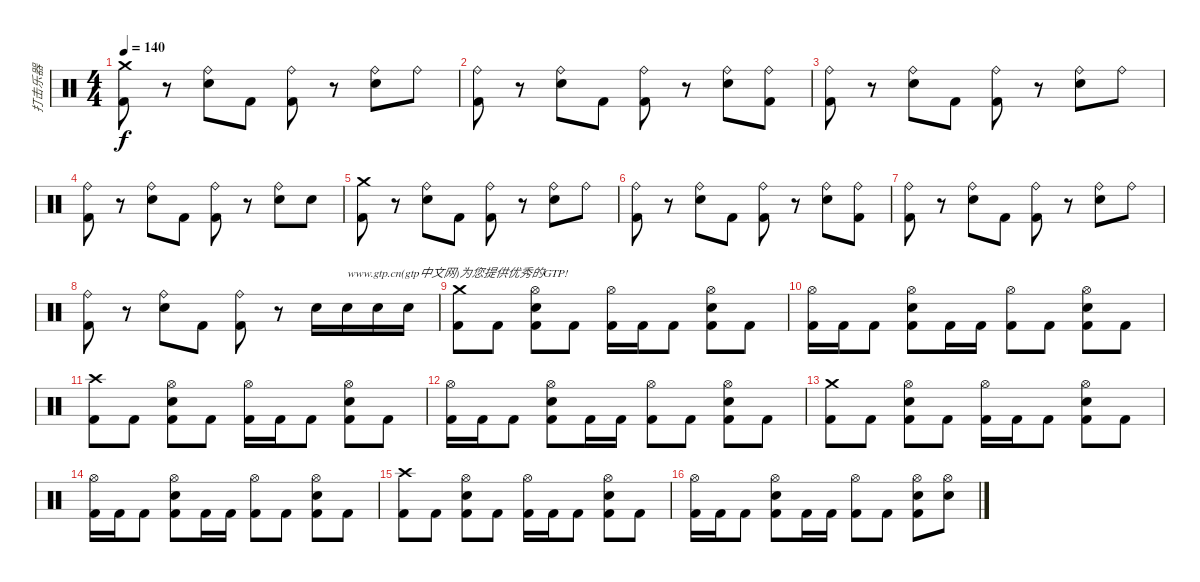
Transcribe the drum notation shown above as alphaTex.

\track ("打击乐器" "打击乐器") {instrument percussion}
\staff {score}
\articulation defaults
\ts (4 4)
\tempo 140
\clef neutral
\ks c
("Crash medium (hit)" "Kick (hit) 2").8{dy f} r.8 ("Ride (bell)" "Snare (hit) 2").8 "Kick (hit) 2".8 ("Ride (bell)" "Kick (hit) 2").8 r.8 ("Ride (bell)" "Snare (hit) 2").8 "Ride (bell)".8 |
("Ride (bell)" "Kick (hit) 2").8 r.8 ("Ride (bell)" "Snare (hit) 2").8 "Kick (hit) 2".8 ("Ride (bell)" "Kick (hit) 2").8 r.8 ("Ride (bell)" "Snare (hit) 2").8 ("Ride (bell)" "Kick (hit) 2").8 |
("Ride (bell)" "Kick (hit) 2").8 r.8 ("Ride (bell)" "Snare (hit) 2").8 "Kick (hit) 2".8 ("Ride (bell)" "Kick (hit) 2").8 r.8 ("Ride (bell)" "Snare (hit) 2").8 "Ride (bell)".8 |
("Ride (bell)" "Kick (hit) 2").8 r.8 ("Ride (bell)" "Snare (hit) 2").8 "Kick (hit) 2".8 ("Ride (bell)" "Kick (hit) 2").8 r.8 ("Ride (bell)" "Snare (hit) 2").8 "Snare (hit) 2".8 |
("Crash medium (hit)" "Kick (hit) 2").8 r.8 ("Ride (bell)" "Snare (hit) 2").8 "Kick (hit) 2".8 ("Ride (bell)" "Kick (hit) 2").8 r.8 ("Ride (bell)" "Snare (hit) 2").8 "Ride (bell)".8 |
("Ride (bell)" "Kick (hit) 2").8 r.8 ("Ride (bell)" "Snare (hit) 2").8 "Kick (hit) 2".8 ("Ride (bell)" "Kick (hit) 2").8 r.8 ("Ride (bell)" "Snare (hit) 2").8 ("Ride (bell)" "Kick (hit) 2").8 |
("Ride (bell)" "Kick (hit) 2").8 r.8 ("Ride (bell)" "Snare (hit) 2").8 "Kick (hit) 2".8 ("Ride (bell)" "Kick (hit) 2").8 r.8 ("Ride (bell)" "Snare (hit) 2").8 "Ride (bell)".8 |
("Ride (bell)" "Kick (hit) 2").8 r.8 ("Ride (bell)" "Snare (hit) 2").8 "Kick (hit) 2".8 ("Ride (bell)" "Kick (hit) 2").8 r.8 "Snare (hit) 2".16 "Snare (hit) 2".16{txt "www.gtp.cn(gtp中文网)为您提供优秀的GTP!"} "Snare (hit) 2".16 "Snare (hit) 2".16 |
("Crash medium (hit)" "Kick (hit) 2").8 "Kick (hit) 2".8 ("Hi-Hat (open)" "Snare (hit) 2" "Kick (hit) 2").8 "Kick (hit) 2".8 ("Hi-Hat (open)" "Kick (hit) 2").16 "Kick (hit) 2".16 "Kick (hit) 2".8 ("Hi-Hat (open)" "Snare (hit) 2" "Kick (hit) 2").8 "Kick (hit) 2".8 |
("Hi-Hat (open)" "Kick (hit) 2").16 "Kick (hit) 2".16 "Kick (hit) 2".8 ("Hi-Hat (open)" "Snare (hit) 2" "Kick (hit) 2").8 "Kick (hit) 2".16 "Kick (hit) 2".16 ("Hi-Hat (open)" "Kick (hit) 2").8 "Kick (hit) 2".8 ("Hi-Hat (open)" "Snare (hit) 2" "Kick (hit) 2").8 "Kick (hit) 2".8 |
("Crash high (hit)" "Kick (hit) 2").8 "Kick (hit) 2".8 ("Hi-Hat (open)" "Snare (hit) 2" "Kick (hit) 2").8 "Kick (hit) 2".8 ("Hi-Hat (open)" "Kick (hit) 2").16 "Kick (hit) 2".16 "Kick (hit) 2".8 ("Hi-Hat (open)" "Snare (hit) 2" "Kick (hit) 2").8 "Kick (hit) 2".8 |
("Hi-Hat (open)" "Kick (hit) 2").16 "Kick (hit) 2".16 "Kick (hit) 2".8 ("Hi-Hat (open)" "Snare (hit) 2" "Kick (hit) 2").8 "Kick (hit) 2".16 "Kick (hit) 2".16 ("Hi-Hat (open)" "Kick (hit) 2").8 "Kick (hit) 2".8 ("Hi-Hat (open)" "Snare (hit) 2" "Kick (hit) 2").8 "Kick (hit) 2".8 |
("Crash medium (hit)" "Kick (hit) 2").8 "Kick (hit) 2".8 ("Hi-Hat (open)" "Snare (hit) 2" "Kick (hit) 2").8 "Kick (hit) 2".8 ("Hi-Hat (open)" "Kick (hit) 2").16 "Kick (hit) 2".16 "Kick (hit) 2".8 ("Hi-Hat (open)" "Snare (hit) 2" "Kick (hit) 2").8 "Kick (hit) 2".8 |
("Hi-Hat (open)" "Kick (hit) 2").16 "Kick (hit) 2".16 "Kick (hit) 2".8 ("Hi-Hat (open)" "Snare (hit) 2" "Kick (hit) 2").8 "Kick (hit) 2".16 "Kick (hit) 2".16 ("Hi-Hat (open)" "Kick (hit) 2").8 "Kick (hit) 2".8 ("Hi-Hat (open)" "Snare (hit) 2" "Kick (hit) 2").8 "Kick (hit) 2".8 |
("Crash high (hit)" "Kick (hit) 2").8 "Kick (hit) 2".8 ("Hi-Hat (open)" "Snare (hit) 2" "Kick (hit) 2").8 "Kick (hit) 2".8 ("Hi-Hat (open)" "Kick (hit) 2").16 "Kick (hit) 2".16 "Kick (hit) 2".8 ("Hi-Hat (open)" "Snare (hit) 2" "Kick (hit) 2").8 "Kick (hit) 2".8 |
("Hi-Hat (open)" "Kick (hit) 2").16 "Kick (hit) 2".16 "Kick (hit) 2".8 ("Hi-Hat (open)" "Snare (hit) 2" "Kick (hit) 2").8 "Kick (hit) 2".16 "Kick (hit) 2".16 ("Hi-Hat (open)" "Kick (hit) 2").8 "Kick (hit) 2".8 ("Hi-Hat (open)" "Snare (hit) 2" "Kick (hit) 2").8 ("Hi-Hat (open)" "Snare (hit) 2").8
